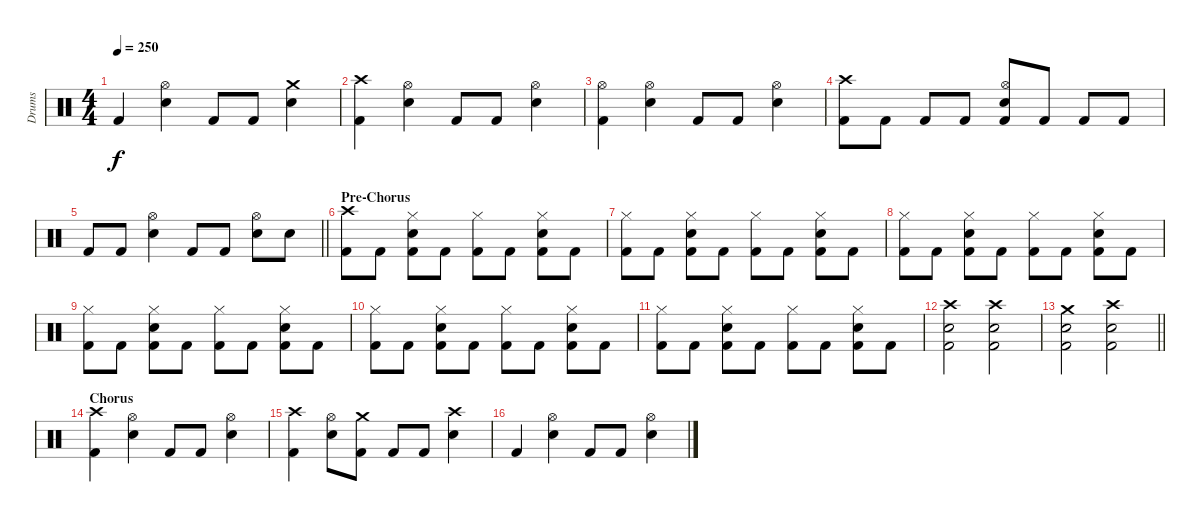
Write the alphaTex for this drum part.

\track ("Drums" "Drums") {instrument percussion}
\staff {score}
\articulation defaults
\ts (4 4)
\tempo 250
\clef neutral
\ks c "Kick (hit) 2".4{dy f}
("Hi-Hat (open)" "Snare (hit) 2").4 "Kick (hit) 2".8 "Kick (hit) 2".8 ("Crash medium (hit)" "Snare (hit) 2").4 |
("Crash high (hit)" "Kick (hit) 2").4 ("Hi-Hat (open)" "Snare (hit) 2").4 "Kick (hit) 2".8 "Kick (hit) 2".8 ("Hi-Hat (open)" "Snare (hit) 2").4 |
("Hi-Hat (open)" "Kick (hit) 2").4 ("Hi-Hat (open)" "Snare (hit) 2").4 "Kick (hit) 2".8 "Kick (hit) 2".8 ("Hi-Hat (open)" "Snare (hit) 2").4 |
("Crash high (hit)" "Kick (hit) 2").8 "Kick (hit) 2".8 "Kick (hit) 2".8 "Kick (hit) 2".8 ("Hi-Hat (open)" "Snare (hit) 2" "Kick (hit) 2").8 "Kick (hit) 2".8 "Kick (hit) 2".8 "Kick (hit) 2".8 |
\barLineRight lightlight "Kick (hit) 2".8 "Kick (hit) 2".8
("Hi-Hat (open)" "Snare (hit) 2").4 "Kick (hit) 2".8 "Kick (hit) 2".8 ("Hi-Hat (open)" "Snare (hit) 2").8 "Snare (hit) 2".8 |
\section ("" "Pre-Chorus")
("Crash high (hit)" "Kick (hit) 2").8 "Kick (hit) 2".8 ("Hi-Hat (closed)" "Snare (hit) 2" "Kick (hit) 2").8 "Kick (hit) 2".8 ("Hi-Hat (closed)" "Kick (hit) 2").8 "Kick (hit) 2".8 ("Hi-Hat (closed)" "Snare (hit) 2" "Kick (hit) 2").8 "Kick (hit) 2".8 |
("Hi-Hat (closed)" "Kick (hit) 2").8 "Kick (hit) 2".8 ("Hi-Hat (closed)" "Snare (hit) 2" "Kick (hit) 2").8 "Kick (hit) 2".8 ("Hi-Hat (closed)" "Kick (hit) 2").8 "Kick (hit) 2".8 ("Hi-Hat (closed)" "Snare (hit) 2" "Kick (hit) 2").8 "Kick (hit) 2".8 |
("Hi-Hat (closed)" "Kick (hit) 2").8 "Kick (hit) 2".8 ("Hi-Hat (closed)" "Snare (hit) 2" "Kick (hit) 2").8 "Kick (hit) 2".8 ("Hi-Hat (closed)" "Kick (hit) 2").8 "Kick (hit) 2".8 ("Hi-Hat (closed)" "Snare (hit) 2" "Kick (hit) 2").8 "Kick (hit) 2".8 |
("Hi-Hat (closed)" "Kick (hit) 2").8 "Kick (hit) 2".8 ("Hi-Hat (closed)" "Snare (hit) 2" "Kick (hit) 2").8 "Kick (hit) 2".8 ("Hi-Hat (closed)" "Kick (hit) 2").8 "Kick (hit) 2".8 ("Hi-Hat (closed)" "Snare (hit) 2" "Kick (hit) 2").8 "Kick (hit) 2".8 |
("Hi-Hat (closed)" "Kick (hit) 2").8 "Kick (hit) 2".8 ("Hi-Hat (closed)" "Snare (hit) 2" "Kick (hit) 2").8 "Kick (hit) 2".8 ("Hi-Hat (closed)" "Kick (hit) 2").8 "Kick (hit) 2".8 ("Hi-Hat (closed)" "Snare (hit) 2" "Kick (hit) 2").8 "Kick (hit) 2".8 |
("Hi-Hat (closed)" "Kick (hit) 2").8 "Kick (hit) 2".8 ("Hi-Hat (closed)" "Snare (hit) 2" "Kick (hit) 2").8 "Kick (hit) 2".8 ("Hi-Hat (closed)" "Kick (hit) 2").8 "Kick (hit) 2".8 ("Hi-Hat (closed)" "Snare (hit) 2" "Kick (hit) 2").8 "Kick (hit) 2".8 |
("Crash high (hit)" "Snare (hit) 2" "Kick (hit) 2").2 ("Crash high (hit)" "Snare (hit) 2" "Kick (hit) 2").2 |
\barLineRight lightlight
("Crash medium (hit)" "Snare (hit) 2" "Kick (hit) 2").2 ("Crash high (hit)" "Snare (hit) 2" "Kick (hit) 2").2 |
\section ("" "Chorus")
("Crash high (hit)" "Kick (hit) 2").4 ("Hi-Hat (open)" "Snare (hit) 2").4 "Kick (hit) 2".8 "Kick (hit) 2".8 ("Hi-Hat (open)" "Snare (hit) 2").4 |
("Crash high (hit)" "Kick (hit) 2").4 ("Hi-Hat (open)" "Snare (hit) 2").8 ("Crash medium (hit)" "Kick (hit) 2").8 "Kick (hit) 2".8 "Kick (hit) 2".8 ("Crash high (hit)" "Snare (hit) 2").4 |
"Kick (hit) 2".4 ("Hi-Hat (open)" "Snare (hit) 2").4 "Kick (hit) 2".8 "Kick (hit) 2".8 ("Hi-Hat (open)" "Snare (hit) 2").4
